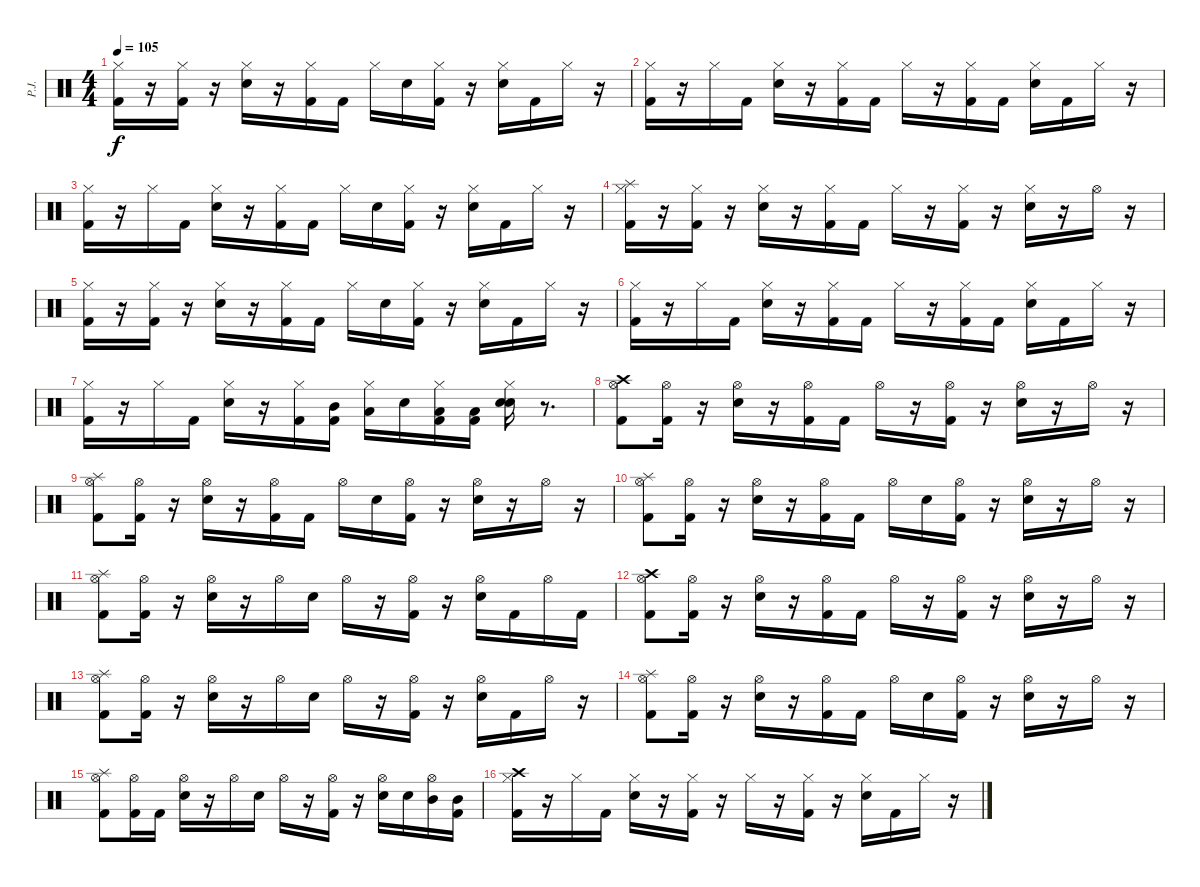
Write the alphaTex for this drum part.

\track ("P.J." "P.J.") {instrument percussion}
\staff {score}
\articulation defaults
\ts (4 4)
\tempo 105
\clef neutral
\ks c
("Hi-Hat (closed)" "Kick (hit) 2").16{dy f} r.16 ("Kick (hit) 2" "Hi-Hat (closed)").16 r.16 ("Hi-Hat (closed)" "Electric Snare (hit)").16 r.16 ("Kick (hit) 2" "Hi-Hat (closed)").16 "Kick (hit) 2".16 "Hi-Hat (closed)".16 "Electric Snare (hit)".16 ("Kick (hit) 2" "Hi-Hat (closed)").16 r.16 ("Electric Snare (hit)" "Hi-Hat (closed)").16 "Kick (hit) 2".16 "Hi-Hat (closed)".16 r.16 |
("Kick (hit) 2" "Hi-Hat (closed)").16 r.16 "Hi-Hat (closed)".16 "Kick (hit) 2".16 ("Hi-Hat (closed)" "Electric Snare (hit)").16 r.16 ("Kick (hit) 2" "Hi-Hat (closed)").16 "Kick (hit) 2".16 "Hi-Hat (closed)".16 r.16 ("Hi-Hat (closed)" "Kick (hit) 2").16 "Kick (hit) 2".16 ("Electric Snare (hit)" "Hi-Hat (closed)").16 "Kick (hit) 2".16 "Hi-Hat (closed)".16 r.16 |
("Kick (hit) 2" "Hi-Hat (closed)").16 r.16 "Hi-Hat (closed)".16 "Kick (hit) 2".16 ("Hi-Hat (closed)" "Electric Snare (hit)").16 r.16 ("Kick (hit) 2" "Hi-Hat (closed)").16 "Kick (hit) 2".16 "Hi-Hat (closed)".16 "Electric Snare (hit)".16 ("Kick (hit) 2" "Hi-Hat (closed)").16 r.16 ("Hi-Hat (closed)" "Electric Snare (hit)").16 "Kick (hit) 2".16 "Hi-Hat (closed)".16 r.16 |
("Kick (hit) 2" "Hi-Hat (closed)" "Splash (hit)").16 r.16 ("Kick (hit) 2" "Hi-Hat (closed)").16 r.16 ("Electric Snare (hit)" "Hi-Hat (closed)").16 r.16 ("Hi-Hat (closed)" "Kick (hit) 2").16 "Kick (hit) 2".16 "Hi-Hat (closed)".16 r.16 ("Hi-Hat (closed)" "Kick (hit) 2").16 r.16 ("Electric Snare (hit)" "Hi-Hat (closed)").16 r.16 "Hi-Hat (open)".16 r.16 |
("Hi-Hat (closed)" "Kick (hit) 2").16 r.16 ("Kick (hit) 2" "Hi-Hat (closed)").16 r.16 ("Electric Snare (hit)" "Hi-Hat (closed)").16 r.16 ("Kick (hit) 2" "Hi-Hat (closed)").16 "Kick (hit) 2".16 "Hi-Hat (closed)".16 "Electric Snare (hit)".16 ("Kick (hit) 2" "Hi-Hat (closed)").16 r.16 ("Hi-Hat (closed)" "Electric Snare (hit)").16 "Kick (hit) 2".16 "Hi-Hat (closed)".16 r.16 |
("Hi-Hat (closed)" "Kick (hit) 2").16 r.16 "Hi-Hat (closed)".16 "Kick (hit) 2".16 ("Hi-Hat (closed)" "Electric Snare (hit)").16 r.16 ("Kick (hit) 2" "Hi-Hat (closed)").16 "Kick (hit) 2".16 "Hi-Hat (closed)".16 r.16 ("Kick (hit) 2" "Hi-Hat (closed)").16 "Kick (hit) 2".16 ("Electric Snare (hit)" "Hi-Hat (closed)").16 "Kick (hit) 2".16 "Hi-Hat (closed)".16 r.16 |
("Hi-Hat (closed)" "Kick (hit) 2").16 r.16 "Hi-Hat (closed)".16 "Kick (hit) 2".16 ("Hi-Hat (closed)" "Electric Snare (hit)").16 r.16 ("Kick (hit) 2" "Hi-Hat (closed)").16 ("Mid Tom (hit)" "Kick (hit) 2").16 ("Hi-Hat (closed)" "Low Tom (hit)").16 "Electric Snare (hit)".16 ("Hi-Hat (closed)" "Kick (hit) 2" "Low Floor Tom (hit)").16 ("Low Floor Tom (hit)" "Kick (hit) 2").16 ("Snare (hit) 2" "Hi-Hat (closed)" "Electric Snare (hit)").16 r.8{d} |
("Crash high (hit)" "Hi-Hat (open)" "Kick (hit) 2").8 ("Hi-Hat (open)" "Kick (hit) 2").16 r.16 ("Electric Snare (hit)" "Hi-Hat (open)").16 r.16 ("Hi-Hat (open)" "Kick (hit) 2").16 "Kick (hit) 2".16 "Hi-Hat (open)".16 r.16 ("Kick (hit) 2" "Hi-Hat (open)").16 r.16 ("Electric Snare (hit)" "Hi-Hat (open)").16 r.16 "Hi-Hat (open)".16 r.16 |
("Hi-Hat (open)" "Kick (hit) 2" "Splash (hit)").8 ("Hi-Hat (open)" "Kick (hit) 2").16 r.16 ("Electric Snare (hit)" "Hi-Hat (open)").16 r.16 ("Hi-Hat (open)" "Kick (hit) 2").16 "Kick (hit) 2".16 "Hi-Hat (open)".16 "Electric Snare (hit)".16 ("Hi-Hat (open)" "Kick (hit) 2").16 r.16 ("Hi-Hat (open)" "Electric Snare (hit)").16 r.16 "Hi-Hat (open)".16 r.16 |
("Splash (hit)" "Hi-Hat (open)" "Kick (hit) 2").8 ("Kick (hit) 2" "Hi-Hat (open)").16 r.16 ("Hi-Hat (open)" "Electric Snare (hit)").16 r.16 ("Hi-Hat (open)" "Kick (hit) 2").16 "Kick (hit) 2".16 "Hi-Hat (open)".16 "Electric Snare (hit)".16 ("Hi-Hat (open)" "Kick (hit) 2").16 r.16 ("Electric Snare (hit)" "Hi-Hat (open)").16 r.16 "Hi-Hat (open)".16 r.16 |
("Kick (hit) 2" "Hi-Hat (open)" "Splash (hit)").8 ("Hi-Hat (open)" "Kick (hit) 2").16 r.16 ("Electric Snare (hit)" "Hi-Hat (open)").16 r.16 "Hi-Hat (open)".16 "Electric Snare (hit)".16 "Hi-Hat (open)".16 r.16 ("Kick (hit) 2" "Hi-Hat (open)").16 r.16 ("Electric Snare (hit)" "Hi-Hat (open)").16 "Kick (hit) 2".16 "Hi-Hat (open)".16 "Kick (hit) 2".16 |
("Crash high (hit)" "Hi-Hat (open)" "Kick (hit) 2").8 ("Hi-Hat (open)" "Kick (hit) 2").16 r.16 ("Electric Snare (hit)" "Hi-Hat (open)").16 r.16 ("Hi-Hat (open)" "Kick (hit) 2").16 "Kick (hit) 2".16 "Hi-Hat (open)".16 r.16 ("Kick (hit) 2" "Hi-Hat (open)").16 r.16 ("Electric Snare (hit)" "Hi-Hat (open)").16 r.16 "Hi-Hat (open)".16 r.16 |
("Splash (hit)" "Kick (hit) 2" "Hi-Hat (open)").8 ("Hi-Hat (open)" "Kick (hit) 2").16 r.16 ("Hi-Hat (open)" "Electric Snare (hit)").16 r.16 "Hi-Hat (open)".16 "Electric Snare (hit)".16 "Hi-Hat (open)".16 r.16 ("Kick (hit) 2" "Hi-Hat (open)").16 r.16 ("Hi-Hat (open)" "Electric Snare (hit)").16 "Kick (hit) 2".16 "Hi-Hat (open)".16 r.16 |
("Splash (hit)" "Hi-Hat (open)" "Kick (hit) 2").8 ("Hi-Hat (open)" "Kick (hit) 2").16 r.16 ("Hi-Hat (open)" "Electric Snare (hit)").16 r.16 ("Hi-Hat (open)" "Kick (hit) 2").16 "Kick (hit) 2".16 "Hi-Hat (open)".16 "Electric Snare (hit)".16 ("Hi-Hat (open)" "Kick (hit) 2").16 r.16 ("Electric Snare (hit)" "Hi-Hat (open)").16 r.16 "Hi-Hat (open)".16 r.16 |
("Kick (hit) 2" "Hi-Hat (open)" "Splash (hit)").8 ("Hi-Hat (open)" "Kick (hit) 2").16 "Kick (hit) 2".16 ("Hi-Hat (open)" "Electric Snare (hit)").16 r.16 "Hi-Hat (open)".16 "Electric Snare (hit)".16 "Hi-Hat (open)".16 r.16 ("Hi-Hat (open)" "Kick (hit) 2").16 r.16 ("Hi-Hat (open)" "Electric Snare (hit)").16 "Electric Snare (hit)".16 ("Mid Tom (hit)" "Hi-Hat (open)").16 ("Kick (hit) 2" "Mid Tom (hit)").16 |
("Hi-Hat (closed)" "Kick (hit) 2" "Crash high (hit)").16 r.16 "Hi-Hat (closed)".16 "Kick (hit) 2".16 ("Hi-Hat (closed)" "Electric Snare (hit)").16 r.16 ("Hi-Hat (closed)" "Kick (hit) 2").16 r.16 "Hi-Hat (closed)".16 r.16 ("Hi-Hat (closed)" "Kick (hit) 2").16 r.16 ("Electric Snare (hit)" "Hi-Hat (closed)").16 "Kick (hit) 2".16 "Hi-Hat (closed)".16 r.16
